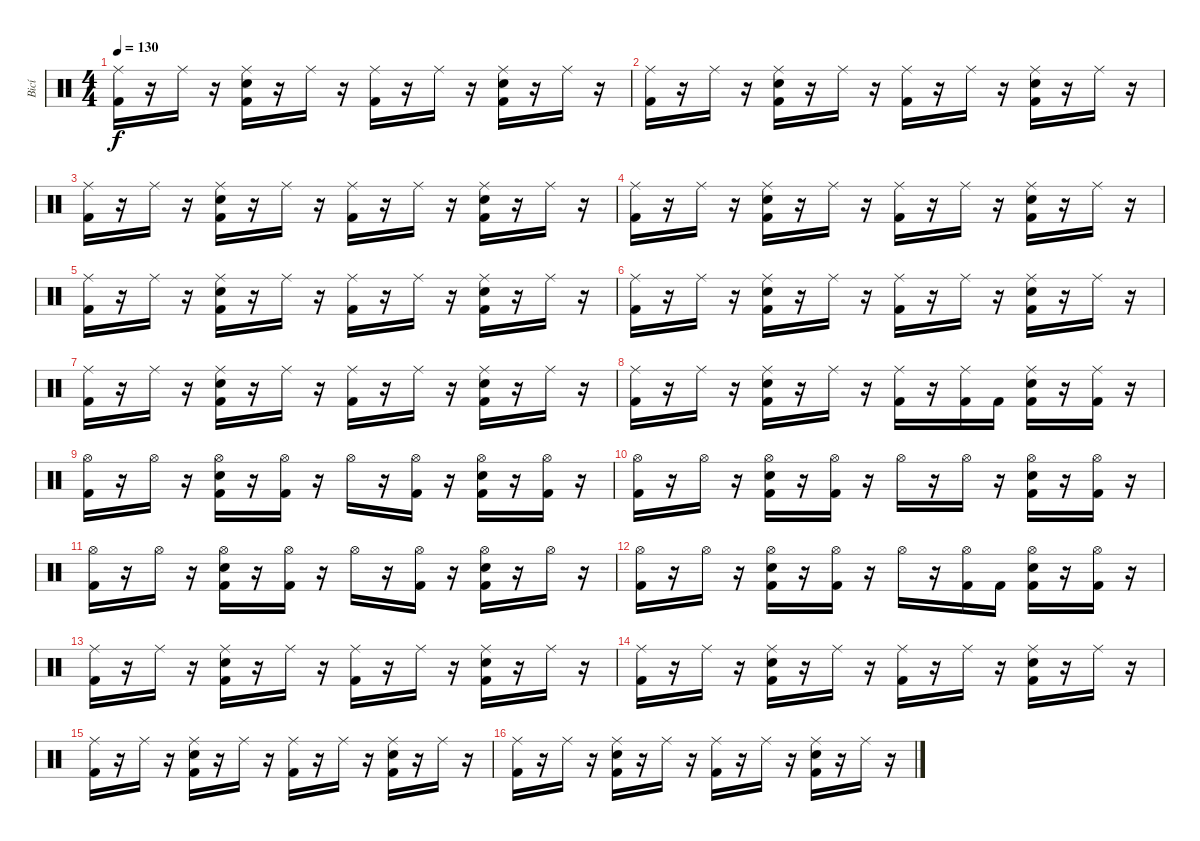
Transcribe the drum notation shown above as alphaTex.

\track ("Bicí" "Bicí") {instrument percussion}
\staff {score}
\articulation defaults
\ts (4 4)
\tempo 130
\clef neutral
\ks c
("Ride (middle)" "Kick (hit) 2").16{dy f} r.16 "Ride (middle)".16 r.16 ("Ride (middle)" "Electric Snare (hit)" "Kick (hit) 2").16 r.16 "Ride (middle)".16 r.16 ("Ride (middle)" "Kick (hit) 2").16 r.16 "Ride (middle)".16 r.16 ("Ride (middle)" "Electric Snare (hit)" "Kick (hit) 2").16 r.16 "Ride (middle)".16 r.16 |
("Ride (middle)" "Kick (hit) 2").16 r.16 "Ride (middle)".16 r.16 ("Ride (middle)" "Electric Snare (hit)" "Kick (hit) 2").16 r.16 "Ride (middle)".16 r.16 ("Ride (middle)" "Kick (hit) 2").16 r.16 "Ride (middle)".16 r.16 ("Ride (middle)" "Electric Snare (hit)" "Kick (hit) 2").16 r.16 "Ride (middle)".16 r.16 |
("Ride (middle)" "Kick (hit) 2").16 r.16 "Ride (middle)".16 r.16 ("Ride (middle)" "Electric Snare (hit)" "Kick (hit) 2").16 r.16 "Ride (middle)".16 r.16 ("Ride (middle)" "Kick (hit) 2").16 r.16 "Ride (middle)".16 r.16 ("Ride (middle)" "Electric Snare (hit)" "Kick (hit) 2").16 r.16 "Ride (middle)".16 r.16 |
("Ride (middle)" "Kick (hit) 2").16 r.16 "Ride (middle)".16 r.16 ("Ride (middle)" "Electric Snare (hit)" "Kick (hit) 2").16 r.16 "Ride (middle)".16 r.16 ("Ride (middle)" "Kick (hit) 2").16 r.16 "Ride (middle)".16 r.16 ("Ride (middle)" "Electric Snare (hit)" "Kick (hit) 2").16 r.16 "Ride (middle)".16 r.16 |
("Ride (middle)" "Kick (hit) 2").16 r.16 "Ride (middle)".16 r.16 ("Ride (middle)" "Electric Snare (hit)" "Kick (hit) 2").16 r.16 "Ride (middle)".16 r.16 ("Ride (middle)" "Kick (hit) 2").16 r.16 "Ride (middle)".16 r.16 ("Ride (middle)" "Electric Snare (hit)" "Kick (hit) 2").16 r.16 "Ride (middle)".16 r.16 |
("Ride (middle)" "Kick (hit) 2").16 r.16 "Ride (middle)".16 r.16 ("Ride (middle)" "Electric Snare (hit)" "Kick (hit) 2").16 r.16 "Ride (middle)".16 r.16 ("Ride (middle)" "Kick (hit) 2").16 r.16 "Ride (middle)".16 r.16 ("Ride (middle)" "Electric Snare (hit)" "Kick (hit) 2").16 r.16 "Ride (middle)".16 r.16 |
("Ride (middle)" "Kick (hit) 2").16 r.16 "Ride (middle)".16 r.16 ("Ride (middle)" "Electric Snare (hit)" "Kick (hit) 2").16 r.16 "Ride (middle)".16 r.16 ("Ride (middle)" "Kick (hit) 2").16 r.16 "Ride (middle)".16 r.16 ("Ride (middle)" "Electric Snare (hit)" "Kick (hit) 2").16 r.16 "Ride (middle)".16 r.16 |
("Ride (middle)" "Kick (hit) 2").16 r.16 "Ride (middle)".16 r.16 ("Ride (middle)" "Electric Snare (hit)" "Kick (hit) 2").16 r.16 "Ride (middle)".16 r.16 ("Ride (middle)" "Kick (hit) 2").16 r.16 ("Ride (middle)" "Kick (hit) 2").16 "Kick (hit) 2".16 ("Ride (middle)" "Electric Snare (hit)" "Kick (hit) 2").16 r.16 ("Ride (middle)" "Kick (hit) 2").16 r.16 |
("Hi-Hat (open)" "Kick (hit) 2").16 r.16 "Hi-Hat (open)".16 r.16 ("Hi-Hat (open)" "Electric Snare (hit)" "Kick (hit) 2").16 r.16 ("Hi-Hat (open)" "Kick (hit) 2").16 r.16 "Hi-Hat (open)".16 r.16 ("Hi-Hat (open)" "Kick (hit) 2").16 r.16 ("Hi-Hat (open)" "Electric Snare (hit)" "Kick (hit) 2").16 r.16 ("Hi-Hat (open)" "Kick (hit) 2").16 r.16 |
("Hi-Hat (open)" "Kick (hit) 2").16 r.16 "Hi-Hat (open)".16 r.16 ("Hi-Hat (open)" "Electric Snare (hit)" "Kick (hit) 2").16 r.16 ("Hi-Hat (open)" "Kick (hit) 2").16 r.16 "Hi-Hat (open)".16 r.16 "Hi-Hat (open)".16 r.16 ("Hi-Hat (open)" "Electric Snare (hit)" "Kick (hit) 2").16 r.16 ("Hi-Hat (open)" "Kick (hit) 2").16 r.16 |
("Hi-Hat (open)" "Kick (hit) 2").16 r.16 "Hi-Hat (open)".16 r.16 ("Hi-Hat (open)" "Electric Snare (hit)" "Kick (hit) 2").16 r.16 ("Hi-Hat (open)" "Kick (hit) 2").16 r.16 "Hi-Hat (open)".16 r.16 ("Hi-Hat (open)" "Kick (hit) 2").16 r.16 ("Hi-Hat (open)" "Electric Snare (hit)" "Kick (hit) 2").16 r.16 "Hi-Hat (open)".16 r.16 |
("Hi-Hat (open)" "Kick (hit) 2").16 r.16 "Hi-Hat (open)".16 r.16 ("Hi-Hat (open)" "Electric Snare (hit)" "Kick (hit) 2").16 r.16 ("Hi-Hat (open)" "Kick (hit) 2").16 r.16 "Hi-Hat (open)".16 r.16 ("Hi-Hat (open)" "Kick (hit) 2").16 "Kick (hit) 2".16 ("Hi-Hat (open)" "Electric Snare (hit)" "Kick (hit) 2").16 r.16 ("Hi-Hat (open)" "Kick (hit) 2").16 r.16 |
("Ride (middle)" "Kick (hit) 2").16 r.16 "Ride (middle)".16 r.16 ("Ride (middle)" "Electric Snare (hit)" "Kick (hit) 2").16 r.16 "Ride (middle)".16 r.16 ("Ride (middle)" "Kick (hit) 2").16 r.16 "Ride (middle)".16 r.16 ("Ride (middle)" "Electric Snare (hit)" "Kick (hit) 2").16 r.16 "Ride (middle)".16 r.16 |
("Ride (middle)" "Kick (hit) 2").16 r.16 "Ride (middle)".16 r.16 ("Ride (middle)" "Electric Snare (hit)" "Kick (hit) 2").16 r.16 "Ride (middle)".16 r.16 ("Ride (middle)" "Kick (hit) 2").16 r.16 "Ride (middle)".16 r.16 ("Ride (middle)" "Electric Snare (hit)" "Kick (hit) 2").16 r.16 "Ride (middle)".16 r.16 |
("Ride (middle)" "Kick (hit) 2").16 r.16 "Ride (middle)".16 r.16 ("Ride (middle)" "Electric Snare (hit)" "Kick (hit) 2").16 r.16 "Ride (middle)".16 r.16 ("Ride (middle)" "Kick (hit) 2").16 r.16 "Ride (middle)".16 r.16 ("Ride (middle)" "Electric Snare (hit)" "Kick (hit) 2").16 r.16 "Ride (middle)".16 r.16 |
("Ride (middle)" "Kick (hit) 2").16 r.16 "Ride (middle)".16 r.16 ("Ride (middle)" "Electric Snare (hit)" "Kick (hit) 2").16 r.16 "Ride (middle)".16 r.16 ("Ride (middle)" "Kick (hit) 2").16 r.16 "Ride (middle)".16 r.16 ("Ride (middle)" "Electric Snare (hit)" "Kick (hit) 2").16 r.16 "Ride (middle)".16 r.16
